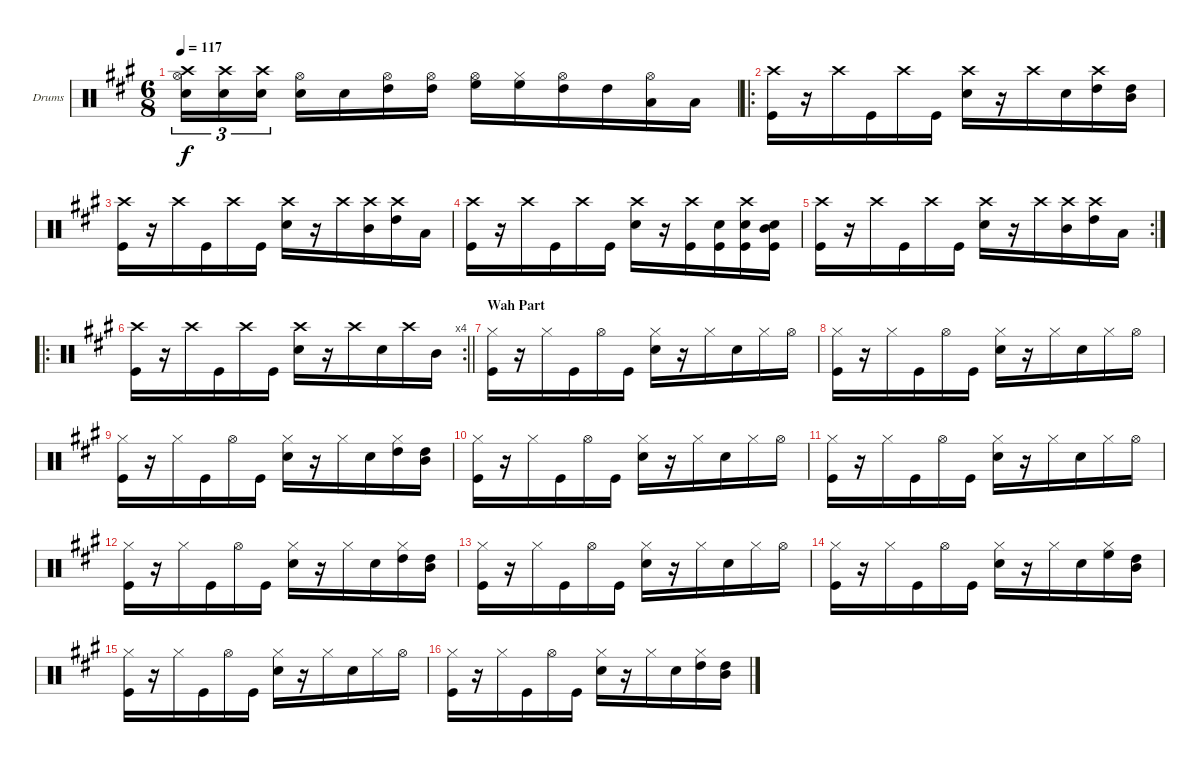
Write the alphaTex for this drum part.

\bracketExtendMode groupsimilarinstruments
\firstSystemTrackNameOrientation horizontal
\otherSystemsTrackNameOrientation horizontal
\track ("Drumkit" "Drums") {instrument percussion}
\staff {score}
\articulation defaults
\ts (6 8)
\tempo 117
\clef neutral
\ks a
("Hi-Hat (open)" "Crash high (hit)" "Snare (hit) 2").16{tu (3 2) dy f} ("Crash high (hit)" "Snare (hit) 2").16{tu (3 2)} ("Crash high (hit)" "Snare (hit) 2").16{tu (3 2)} ("Hi-Hat (open)" "Snare (hit) 2").16 "Snare (hit) 2".16 ("Hi-Hat (open)" "High Tom (hit)").16 ("Hi-Hat (open)" "High Tom (hit)").16 ("Hi-Hat (open)" "High Floor Tom (hit)").16 ("Hi-Hat (closed)" "High Floor Tom (hit)").16 ("Hi-Hat (open)" "High Tom (hit)").16 "High Tom (hit)".16 ("Hi-Hat (open)" "Low Tom (hit)").16 "Low Tom (hit)".16 |
\ro
("Crash high (hit)" "Kick (hit)").16 r.16 "Crash high (hit)".16 "Kick (hit)".16 "Crash high (hit)".16 "Kick (hit)".16 ("Crash high (hit)" "Snare (hit) 2").16 r.16 "Crash high (hit)".16 "Snare (hit) 2".16 ("High Tom (hit)" "Crash high (hit)").16 ("High Tom (hit)" "Mid Tom (hit)").16 |
("Crash high (hit)" "Kick (hit)").16 r.16 "Crash high (hit)".16 "Kick (hit)".16 "Crash high (hit)".16 "Kick (hit)".16 ("Crash high (hit)" "Snare (hit) 2").16 r.16 "Crash high (hit)".16 ("Mid Tom (hit)" "Crash high (hit)").16 ("High Tom (hit)" "Crash high (hit)").16 "Low Tom (hit)".16 |
("Crash high (hit)" "Kick (hit)").16 r.16 "Crash high (hit)".16 "Kick (hit)".16 "Crash high (hit)".16 "Kick (hit)".16 ("Crash high (hit)" "Snare (hit) 2").16 r.16 ("Crash high (hit)" "Kick (hit)").16 ("Snare (hit) 2" "Kick (hit)").16 ("Crash high (hit)" "Snare (hit) 2" "Kick (hit)").16 ("Mid Tom (hit)" "Snare (hit) 2" "Kick (hit)").16 |
\rc 2
("Crash high (hit)" "Kick (hit)").16 r.16 "Crash high (hit)".16 "Kick (hit)".16 "Crash high (hit)".16 "Kick (hit)".16 ("Crash high (hit)" "Snare (hit) 2").16 r.16 "Crash high (hit)".16 ("Mid Tom (hit)" "Crash high (hit)").16 ("High Tom (hit)" "Crash high (hit)").16 "Low Tom (hit)".16 |
\ro
\rc 4
\barLineRight lightlight
("Crash high (hit)" "Kick (hit)").16 r.16 "Crash high (hit)".16 "Kick (hit)".16 "Crash high (hit)".16 "Kick (hit)".16 ("Crash high (hit)" "Snare (hit) 2").16 r.16 "Crash high (hit)".16 "Snare (hit) 2".16 "Crash high (hit)".16 "Mid Tom (hit)".16 |
\section ("" "Wah Part")
("Hi-Hat (closed)" "Kick (hit)").16 r.16 "Hi-Hat (closed)".16 "Kick (hit)".16 "Hi-Hat (open)".16 "Kick (hit)".16 ("Hi-Hat (closed)" "Snare (hit) 2").16 r.16 "Hi-Hat (closed)".16 "Snare (hit) 2".16 "Hi-Hat (closed)".16 "Hi-Hat (open)".16 |
("Hi-Hat (closed)" "Kick (hit)").16 r.16 "Hi-Hat (closed)".16 "Kick (hit)".16 "Hi-Hat (open)".16 "Kick (hit)".16 ("Hi-Hat (closed)" "Snare (hit) 2").16 r.16 "Hi-Hat (closed)".16 "Snare (hit) 2".16 "Hi-Hat (closed)".16 "Hi-Hat (open)".16 |
("Hi-Hat (closed)" "Kick (hit)").16 r.16 "Hi-Hat (closed)".16 "Kick (hit)".16 "Hi-Hat (open)".16 "Kick (hit)".16 ("Hi-Hat (closed)" "Snare (hit) 2").16 r.16 "Hi-Hat (closed)".16 "Snare (hit) 2".16 ("High Tom (hit)" "Hi-Hat (closed)").16 ("High Tom (hit)" "Mid Tom (hit)").16 |
("Hi-Hat (closed)" "Kick (hit)").16 r.16 "Hi-Hat (closed)".16 "Kick (hit)".16 "Hi-Hat (open)".16 "Kick (hit)".16 ("Hi-Hat (closed)" "Snare (hit) 2").16 r.16 "Hi-Hat (closed)".16 "Snare (hit) 2".16 "Hi-Hat (closed)".16 "Hi-Hat (open)".16 |
("Hi-Hat (closed)" "Kick (hit)").16 r.16 "Hi-Hat (closed)".16 "Kick (hit)".16 "Hi-Hat (open)".16 "Kick (hit)".16 ("Hi-Hat (closed)" "Snare (hit) 2").16 r.16 "Hi-Hat (closed)".16 "Snare (hit) 2".16 "Hi-Hat (closed)".16 "Hi-Hat (open)".16 |
("Hi-Hat (closed)" "Kick (hit)").16 r.16 "Hi-Hat (closed)".16 "Kick (hit)".16 "Hi-Hat (open)".16 "Kick (hit)".16 ("Hi-Hat (closed)" "Snare (hit) 2").16 r.16 "Hi-Hat (closed)".16 "Snare (hit) 2".16 ("High Tom (hit)" "Hi-Hat (closed)").16 ("High Tom (hit)" "Mid Tom (hit)").16 |
("Hi-Hat (closed)" "Kick (hit)").16 r.16 "Hi-Hat (closed)".16 "Kick (hit)".16 "Hi-Hat (open)".16 "Kick (hit)".16 ("Hi-Hat (closed)" "Snare (hit) 2").16 r.16 "Hi-Hat (closed)".16 "Snare (hit) 2".16 "Hi-Hat (closed)".16 "Hi-Hat (open)".16 |
("Hi-Hat (closed)" "Kick (hit)").16 r.16 "Hi-Hat (closed)".16 "Kick (hit)".16 "Hi-Hat (open)".16 "Kick (hit)".16 ("Hi-Hat (closed)" "Snare (hit) 2").16 r.16 "Hi-Hat (closed)".16 "Snare (hit) 2".16 ("High Floor Tom (hit)" "Hi-Hat (closed)").16 ("High Tom (hit)" "Mid Tom (hit)").16 |
("Hi-Hat (closed)" "Kick (hit)").16 r.16 "Hi-Hat (closed)".16 "Kick (hit)".16 "Hi-Hat (open)".16 "Kick (hit)".16 ("Hi-Hat (closed)" "Snare (hit) 2").16 r.16 "Hi-Hat (closed)".16 "Snare (hit) 2".16 "Hi-Hat (closed)".16 "Hi-Hat (open)".16 |
("Hi-Hat (closed)" "Kick (hit)").16 r.16 "Hi-Hat (closed)".16 "Kick (hit)".16 "Hi-Hat (open)".16 "Kick (hit)".16 ("Hi-Hat (closed)" "Snare (hit) 2").16 r.16 "Hi-Hat (closed)".16 "Snare (hit) 2".16 ("High Tom (hit)" "Hi-Hat (closed)").16 ("High Tom (hit)" "Mid Tom (hit)").16
